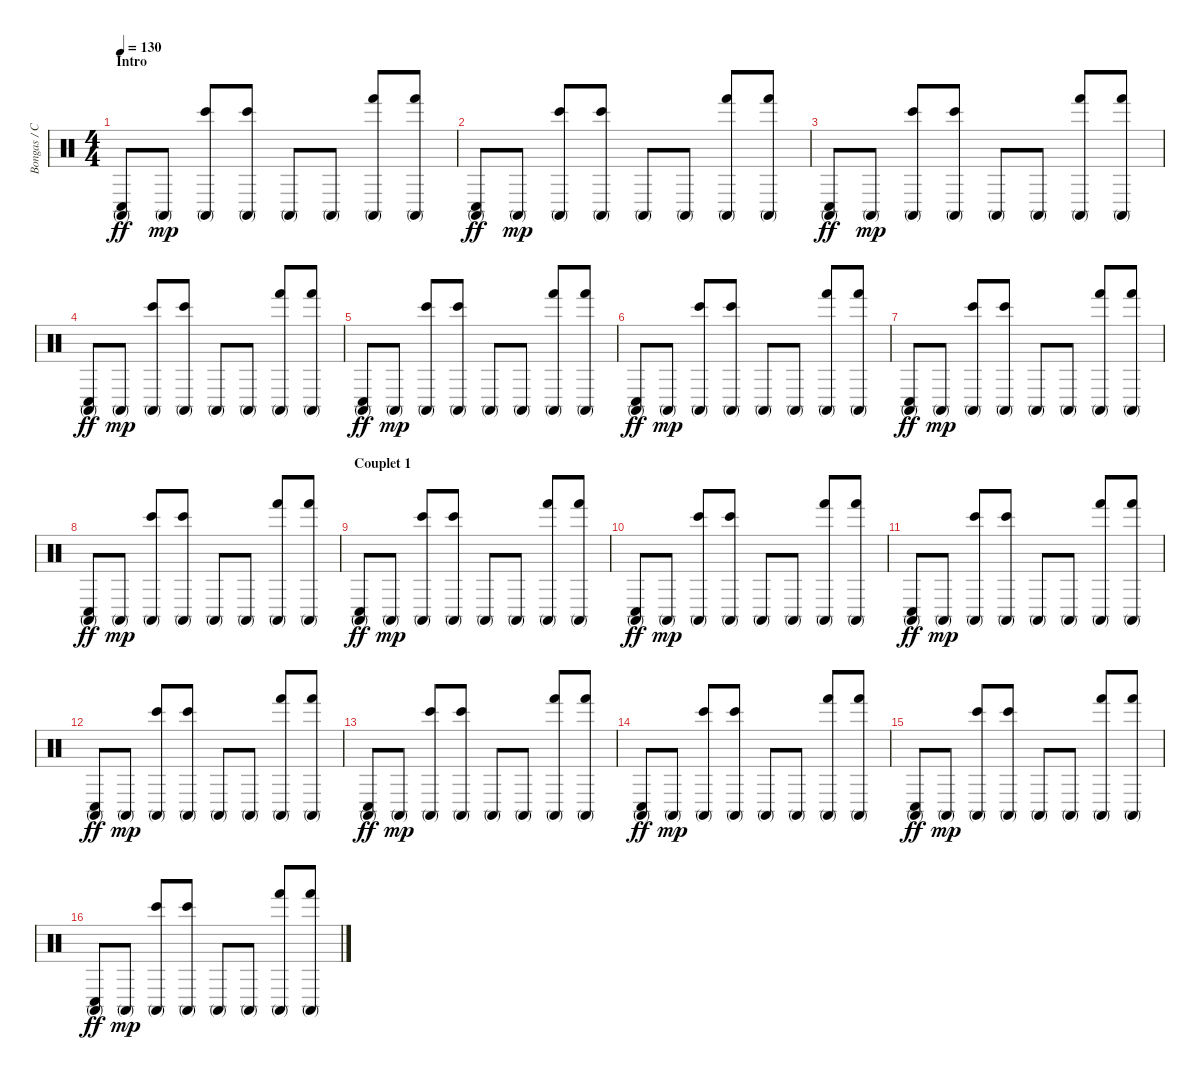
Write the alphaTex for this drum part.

\track ("Bongas / Congos" "Bongas / C") {instrument percussion}
\staff {score}
\articulation defaults
\ts (4 4)
\section ("" "Intro")
\tempo 130
\clef neutral
\ks c
("Conga high (mute)" "Conga low (hit)").8{dy ff} "Conga high (mute)".8{dy mp} ("Conga high (mute)" "Bongo High (hit)").8 ("Conga high (mute)" "Bongo High (hit)").8 "Conga high (mute)".8 "Conga high (mute)".8 ("Conga high (mute)" "Hand (hit)").8 ("Conga high (mute)" "Hand (hit)").8 |
("Conga high (mute)" "Conga low (hit)").8{dy ff} "Conga high (mute)".8{dy mp} ("Conga high (mute)" "Bongo High (hit)").8 ("Conga high (mute)" "Bongo High (hit)").8 "Conga high (mute)".8 "Conga high (mute)".8 ("Conga high (mute)" "Hand (hit)").8 ("Conga high (mute)" "Hand (hit)").8 |
("Conga high (mute)" "Conga low (hit)").8{dy ff} "Conga high (mute)".8{dy mp} ("Conga high (mute)" "Bongo High (hit)").8 ("Conga high (mute)" "Bongo High (hit)").8 "Conga high (mute)".8 "Conga high (mute)".8 ("Conga high (mute)" "Hand (hit)").8 ("Conga high (mute)" "Hand (hit)").8 |
("Conga high (mute)" "Conga low (hit)").8{dy ff} "Conga high (mute)".8{dy mp} ("Conga high (mute)" "Bongo High (hit)").8 ("Conga high (mute)" "Bongo High (hit)").8 "Conga high (mute)".8 "Conga high (mute)".8 ("Conga high (mute)" "Hand (hit)").8 ("Conga high (mute)" "Hand (hit)").8 |
("Conga high (mute)" "Conga low (hit)").8{dy ff} "Conga high (mute)".8{dy mp} ("Conga high (mute)" "Bongo High (hit)").8 ("Conga high (mute)" "Bongo High (hit)").8 "Conga high (mute)".8 "Conga high (mute)".8 ("Conga high (mute)" "Hand (hit)").8 ("Conga high (mute)" "Hand (hit)").8 |
("Conga high (mute)" "Conga low (hit)").8{dy ff} "Conga high (mute)".8{dy mp} ("Conga high (mute)" "Bongo High (hit)").8 ("Conga high (mute)" "Bongo High (hit)").8 "Conga high (mute)".8 "Conga high (mute)".8 ("Conga high (mute)" "Hand (hit)").8 ("Conga high (mute)" "Hand (hit)").8 |
("Conga high (mute)" "Conga low (hit)").8{dy ff} "Conga high (mute)".8{dy mp} ("Conga high (mute)" "Bongo High (hit)").8 ("Conga high (mute)" "Bongo High (hit)").8 "Conga high (mute)".8 "Conga high (mute)".8 ("Conga high (mute)" "Hand (hit)").8 ("Conga high (mute)" "Hand (hit)").8 |
("Conga high (mute)" "Conga low (hit)").8{dy ff} "Conga high (mute)".8{dy mp} ("Conga high (mute)" "Bongo High (hit)").8 ("Conga high (mute)" "Bongo High (hit)").8 "Conga high (mute)".8 "Conga high (mute)".8 ("Conga high (mute)" "Hand (hit)").8 ("Conga high (mute)" "Hand (hit)").8 |
\section ("" "Couplet 1")
("Conga high (mute)" "Conga low (hit)").8{dy ff} "Conga high (mute)".8{dy mp} ("Conga high (mute)" "Bongo High (hit)").8 ("Conga high (mute)" "Bongo High (hit)").8 "Conga high (mute)".8 "Conga high (mute)".8 ("Conga high (mute)" "Hand (hit)").8 ("Conga high (mute)" "Hand (hit)").8 |
("Conga high (mute)" "Conga low (hit)").8{dy ff} "Conga high (mute)".8{dy mp} ("Conga high (mute)" "Bongo High (hit)").8 ("Conga high (mute)" "Bongo High (hit)").8 "Conga high (mute)".8 "Conga high (mute)".8 ("Conga high (mute)" "Hand (hit)").8 ("Conga high (mute)" "Hand (hit)").8 |
("Conga high (mute)" "Conga low (hit)").8{dy ff} "Conga high (mute)".8{dy mp} ("Conga high (mute)" "Bongo High (hit)").8 ("Conga high (mute)" "Bongo High (hit)").8 "Conga high (mute)".8 "Conga high (mute)".8 ("Conga high (mute)" "Hand (hit)").8 ("Conga high (mute)" "Hand (hit)").8 |
("Conga high (mute)" "Conga low (hit)").8{dy ff} "Conga high (mute)".8{dy mp} ("Conga high (mute)" "Bongo High (hit)").8 ("Conga high (mute)" "Bongo High (hit)").8 "Conga high (mute)".8 "Conga high (mute)".8 ("Conga high (mute)" "Hand (hit)").8 ("Conga high (mute)" "Hand (hit)").8 |
("Conga high (mute)" "Conga low (hit)").8{dy ff} "Conga high (mute)".8{dy mp} ("Conga high (mute)" "Bongo High (hit)").8 ("Conga high (mute)" "Bongo High (hit)").8 "Conga high (mute)".8 "Conga high (mute)".8 ("Conga high (mute)" "Hand (hit)").8 ("Conga high (mute)" "Hand (hit)").8 |
("Conga high (mute)" "Conga low (hit)").8{dy ff} "Conga high (mute)".8{dy mp} ("Conga high (mute)" "Bongo High (hit)").8 ("Conga high (mute)" "Bongo High (hit)").8 "Conga high (mute)".8 "Conga high (mute)".8 ("Conga high (mute)" "Hand (hit)").8 ("Conga high (mute)" "Hand (hit)").8 |
("Conga high (mute)" "Conga low (hit)").8{dy ff} "Conga high (mute)".8{dy mp} ("Conga high (mute)" "Bongo High (hit)").8 ("Conga high (mute)" "Bongo High (hit)").8 "Conga high (mute)".8 "Conga high (mute)".8 ("Conga high (mute)" "Hand (hit)").8 ("Conga high (mute)" "Hand (hit)").8 |
("Conga high (mute)" "Conga low (hit)").8{dy ff} "Conga high (mute)".8{dy mp} ("Conga high (mute)" "Bongo High (hit)").8 ("Conga high (mute)" "Bongo High (hit)").8 "Conga high (mute)".8 "Conga high (mute)".8 ("Conga high (mute)" "Hand (hit)").8 ("Conga high (mute)" "Hand (hit)").8
